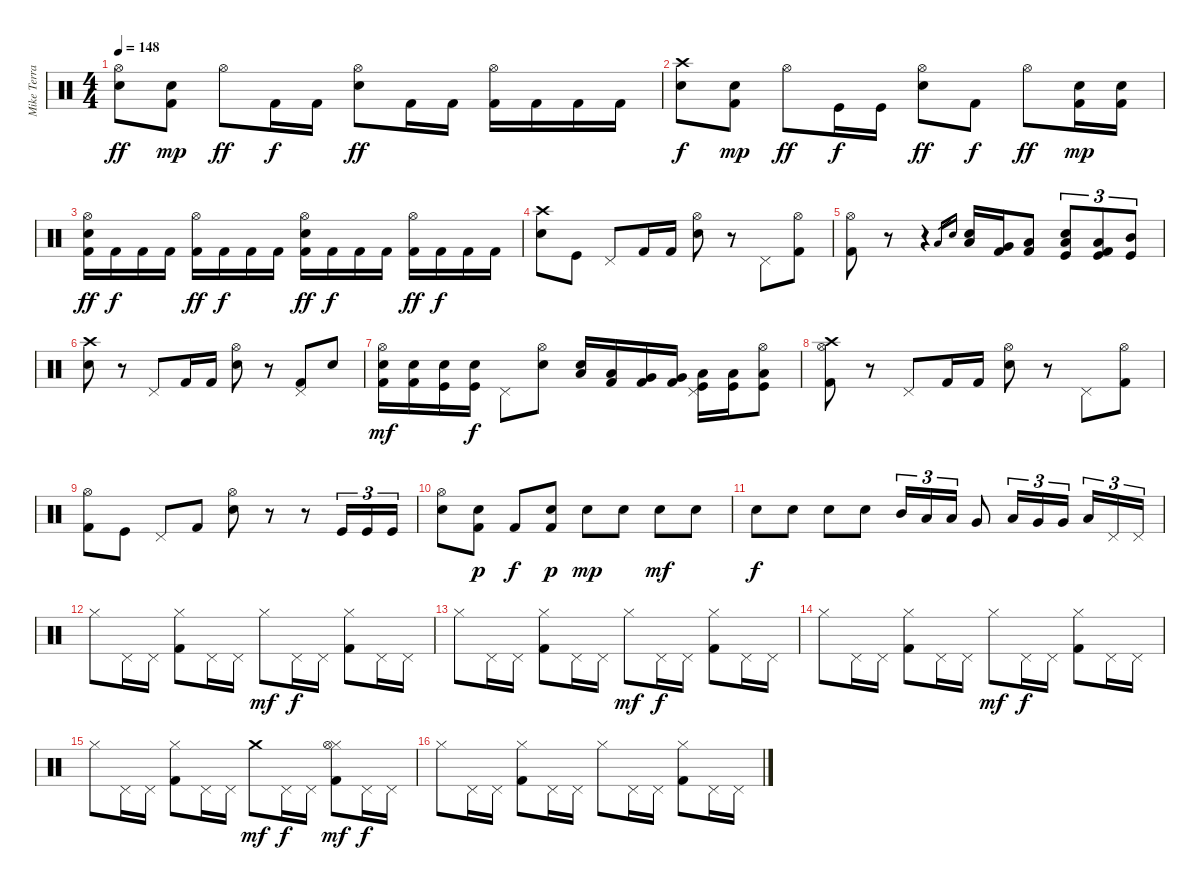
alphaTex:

\track ("Mike Terrana" "Mike Terra") {instrument percussion}
\staff {score}
\articulation defaults
\ts (4 4)
\tempo 148
\clef neutral
\ks c
("Hi-Hat (open)" "Snare (hit) 2").8{dy ff} ("Kick (hit) 2" "Snare (hit) 2").8{dy mp} "Hi-Hat (open)".8{dy ff} "Kick (hit) 2".16{dy f} "Kick (hit) 2".16 ("Hi-Hat (open)" "Electric Snare (hit)").8{dy ff} "Kick (hit) 2".16 "Kick (hit) 2".16 ("Hi-Hat (open)" "Kick (hit) 2").16 "Kick (hit) 2".16 "Kick (hit) 2".16 "Kick (hit) 2".16 |
("Crash high (hit)" "Snare (hit) 2").8{dy f} ("Kick (hit) 2" "Snare (hit) 2").8{dy mp} "Hi-Hat (open)".8{dy ff} "Kick (hit)".16{dy f} "Kick (hit)".16 ("Hi-Hat (open)" "Electric Snare (hit)").8{dy ff} "Kick (hit) 2".8{dy f} "Hi-Hat (open)".8{dy ff} ("Kick (hit) 2" "Snare (hit) 2").16{dy mp} ("Kick (hit) 2" "Snare (hit) 2").16 |
("Hi-Hat (open)" "Snare (hit) 2" "Kick (hit) 2").16{dy ff} "Kick (hit) 2".16{dy f} "Kick (hit) 2".16 "Kick (hit) 2".16 ("Hi-Hat (open)" "Kick (hit) 2").16{dy ff} "Kick (hit) 2".16{dy f} "Kick (hit) 2".16 "Kick (hit) 2".16 ("Hi-Hat (open)" "Electric Snare (hit)" "Kick (hit) 2").16{dy ff} "Kick (hit) 2".16{dy f} "Kick (hit) 2".16 "Kick (hit) 2".16 ("Hi-Hat (open)" "Kick (hit) 2").16{dy ff} "Kick (hit) 2".16{dy f} "Kick (hit) 2".16 "Kick (hit) 2".16 |
("Crash high (hit)" "Snare (hit) 2").8 "Kick (hit)".8 "Pedal Hi-Hat (hit)".8 "Kick (hit) 2".16 "Kick (hit) 2".16 ("Hi-Hat (open)" "Snare (hit) 2").8 r.8 "Pedal Hi-Hat (hit)".8 ("Hi-Hat (open)" "Kick (hit) 2").8 |
("Hi-Hat (open)" "Kick (hit) 2").8 r.8 r.4 "Low Floor Tom (hit)".16{gr} "Snare (hit) 2".16{gr} ("Low Floor Tom (hit)" "Snare (hit) 2").16 ("Very Low Tom (hit)" "Kick (hit) 2").16 ("Low Floor Tom (hit)" "Kick (hit) 2").8 ("Snare (hit) 2" "Low Floor Tom (hit)" "Kick (hit)").8{tu (3 2)} ("Kick (hit) 2" "Low Tom (hit)" "Kick (hit)").8{tu (3 2)} ("Mid Tom (hit)" "Kick (hit)").8{tu (3 2)} |
("Crash high (hit)" "Snare (hit) 2").8 r.8 "Pedal Hi-Hat (hit)".8 "Kick (hit) 2".16 "Kick (hit) 2".16 ("Hi-Hat (open)" "Snare (hit) 2").8 r.8 ("Pedal Hi-Hat (hit)" "Kick (hit) 2").8 "Snare (hit) 2".8 |
("Hi-Hat (open)" "Snare (hit) 2" "Kick (hit) 2").16{dy mf} ("Snare (hit) 2" "Kick (hit) 2").16 ("Snare (hit) 2" "Kick (hit)").16 ("Snare (hit) 2" "Kick (hit)").16{dy f} "Pedal Hi-Hat (hit)".8 ("Hi-Hat (open)" "Snare (hit) 2").8 ("Low Tom (hit)" "Snare (hit) 2").16 ("Low Tom (hit)" "Kick (hit) 2").16 ("Very Low Tom (hit)" "Kick (hit) 2").16 ("Very Low Tom (hit)" "Kick (hit) 2").16 ("Pedal Hi-Hat (hit)" "Low Floor Tom (hit)" "Kick (hit)").16 ("Low Floor Tom (hit)" "Kick (hit)").16 ("Hi-Hat (open)" "Low Floor Tom (hit)" "Kick (hit)").8 |
("Crash high (hit)" "Hi-Hat (open)" "Kick (hit) 2").8 r.8 "Pedal Hi-Hat (hit)".8 "Kick (hit) 2".16 "Kick (hit) 2".16 ("Hi-Hat (open)" "Snare (hit) 2").8 r.8 "Pedal Hi-Hat (hit)".8 ("Hi-Hat (open)" "Kick (hit) 2").8 |
("Hi-Hat (open)" "Kick (hit) 2").8 "Kick (hit)".8 "Pedal Hi-Hat (hit)".8 "Kick (hit) 2".8 ("Hi-Hat (open)" "Snare (hit) 2").8 r.8 r.8 "Kick (hit)".16{tu (3 2)} "Kick (hit)".16{tu (3 2)} "Kick (hit)".16{tu (3 2)} |
("Hi-Hat (open)" "Electric Snare (hit)").8 ("Kick (hit) 2" "Snare (hit) 2").8{dy p} "Kick (hit) 2".8{dy f} ("Kick (hit) 2" "Snare (hit) 2").8{dy p} "Snare (hit) 2".8{dy mp} "Snare (hit) 2".8 "Snare (hit) 2".8{dy mf} "Snare (hit) 2".8 |
"Snare (hit) 2".8{dy f} "Snare (hit) 2".8 "Snare (hit) 2".8 "Snare (hit) 2".8 "Mid Tom (hit)".16{tu (3 2)} "Low Tom (hit)".16{tu (3 2)} "Low Tom (hit)".16{tu (3 2)} "Very Low Tom (hit)".8 "Low Tom (hit)".16{tu (3 2)} "Very Low Tom (hit)".16{tu (3 2)} "Very Low Tom (hit)".16{tu (3 2)} "Low Floor Tom (hit)".16{tu (3 2)} "Pedal Hi-Hat (hit)".16{tu (3 2)} "Pedal Hi-Hat (hit)".16{tu (3 2)} |
"Hi-Hat (closed)".8 "Pedal Hi-Hat (hit)".16 "Pedal Hi-Hat (hit)".16 ("Hi-Hat (closed)" "Kick (hit) 2").8 "Pedal Hi-Hat (hit)".16 "Pedal Hi-Hat (hit)".16 "Hi-Hat (closed)".8{dy mf} "Pedal Hi-Hat (hit)".16{dy f} "Pedal Hi-Hat (hit)".16 ("Hi-Hat (closed)" "Kick (hit) 2").8 "Pedal Hi-Hat (hit)".16 "Pedal Hi-Hat (hit)".16 |
"Hi-Hat (closed)".8 "Pedal Hi-Hat (hit)".16 "Pedal Hi-Hat (hit)".16 ("Hi-Hat (closed)" "Kick (hit) 2").8 "Pedal Hi-Hat (hit)".16 "Pedal Hi-Hat (hit)".16 "Hi-Hat (closed)".8{dy mf} "Pedal Hi-Hat (hit)".16{dy f} "Pedal Hi-Hat (hit)".16 ("Hi-Hat (closed)" "Kick (hit) 2").8 "Pedal Hi-Hat (hit)".16 "Pedal Hi-Hat (hit)".16 |
"Hi-Hat (closed)".8 "Pedal Hi-Hat (hit)".16 "Pedal Hi-Hat (hit)".16 ("Hi-Hat (closed)" "Kick (hit) 2").8 "Pedal Hi-Hat (hit)".16 "Pedal Hi-Hat (hit)".16 "Hi-Hat (closed)".8{dy mf} "Pedal Hi-Hat (hit)".16{dy f} "Pedal Hi-Hat (hit)".16 ("Hi-Hat (closed)" "Kick (hit) 2").8 "Pedal Hi-Hat (hit)".16 "Pedal Hi-Hat (hit)".16 |
"Hi-Hat (closed)".8 "Pedal Hi-Hat (hit)".16 "Pedal Hi-Hat (hit)".16 ("Hi-Hat (closed)" "Kick (hit) 2").8 "Pedal Hi-Hat (hit)".16 "Pedal Hi-Hat (hit)".16 "Crash medium (hit)".8{dy mf} "Pedal Hi-Hat (hit)".16{dy f} "Pedal Hi-Hat (hit)".16 ("Hi-Hat (closed)" "Hi-Hat (open)" "Kick (hit) 2").8{dy mf} "Pedal Hi-Hat (hit)".16{dy f} "Pedal Hi-Hat (hit)".16 |
"Hi-Hat (closed)".8 "Pedal Hi-Hat (hit)".16 "Pedal Hi-Hat (hit)".16 ("Hi-Hat (closed)" "Kick (hit) 2").8 "Pedal Hi-Hat (hit)".16 "Pedal Hi-Hat (hit)".16 "Hi-Hat (closed)".8 "Pedal Hi-Hat (hit)".16 "Pedal Hi-Hat (hit)".16 ("Hi-Hat (closed)" "Kick (hit) 2").8 "Pedal Hi-Hat (hit)".16 "Pedal Hi-Hat (hit)".16
